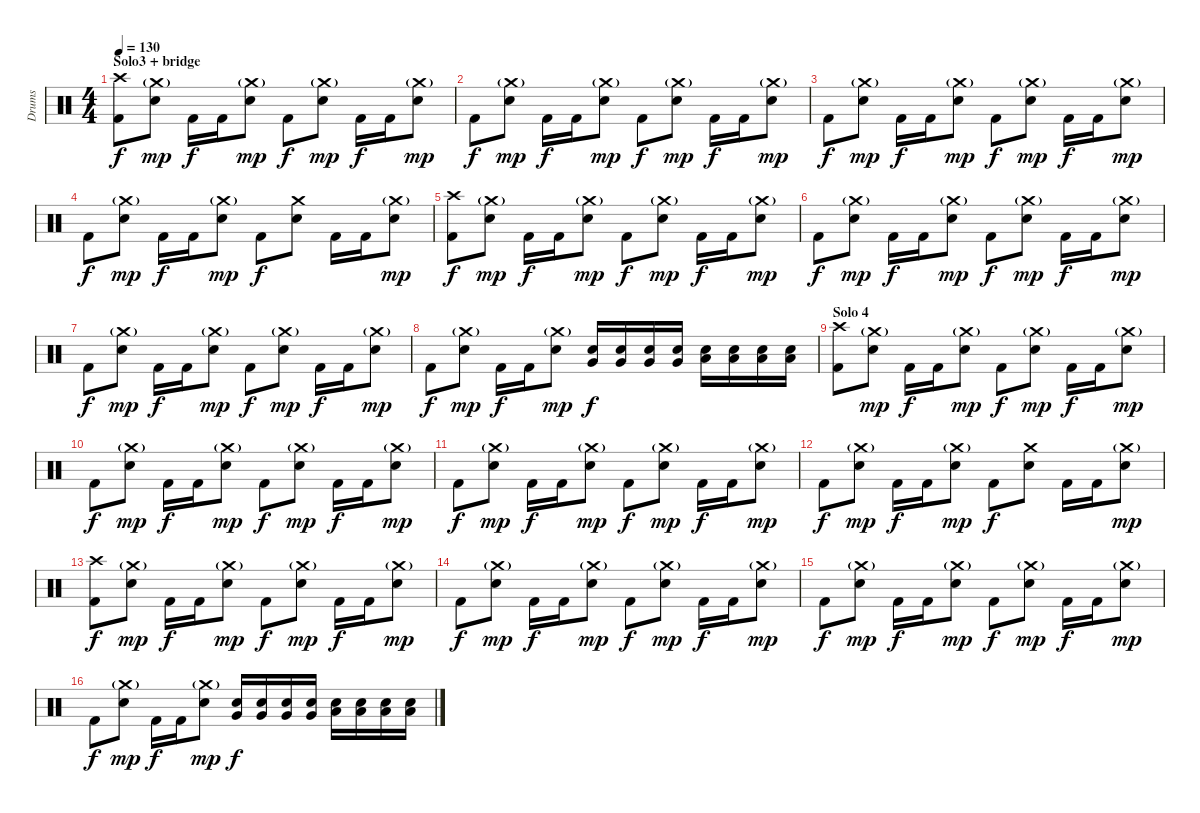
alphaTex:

\track ("Drums" "Drums") {instrument percussion}
\staff {score}
\articulation defaults
\ts (4 4)
\section ("" "Solo3 + bridge")
\tempo 130
\clef neutral
\ks c
("Crash high (hit)" "Kick (hit) 2").8{dy f} ("Crash medium (hit)"{g} "Electric Snare (hit)").8{dy mp} "Kick (hit) 2".16{dy f} "Kick (hit) 2".16 ("Crash medium (hit)"{g} "Electric Snare (hit)").8{dy mp} "Kick (hit) 2".8{dy f} ("Crash medium (hit)"{g} "Electric Snare (hit)").8{dy mp} "Kick (hit) 2".16{dy f} "Kick (hit) 2".16 ("Crash medium (hit)"{g} "Electric Snare (hit)").8{dy mp} |
"Kick (hit) 2".8{dy f} ("Crash medium (hit)"{g} "Electric Snare (hit)").8{dy mp} "Kick (hit) 2".16{dy f} "Kick (hit) 2".16 ("Crash medium (hit)"{g} "Electric Snare (hit)").8{dy mp} "Kick (hit) 2".8{dy f} ("Crash medium (hit)"{g} "Electric Snare (hit)").8{dy mp} "Kick (hit) 2".16{dy f} "Kick (hit) 2".16 ("Crash medium (hit)"{g} "Electric Snare (hit)").8{dy mp} |
"Kick (hit) 2".8{dy f} ("Crash medium (hit)"{g} "Electric Snare (hit)").8{dy mp} "Kick (hit) 2".16{dy f} "Kick (hit) 2".16 ("Crash medium (hit)"{g} "Electric Snare (hit)").8{dy mp} "Kick (hit) 2".8{dy f} ("Crash medium (hit)"{g} "Electric Snare (hit)").8{dy mp} "Kick (hit) 2".16{dy f} "Kick (hit) 2".16 ("Crash medium (hit)"{g} "Electric Snare (hit)").8{dy mp} |
"Kick (hit) 2".8{dy f} ("Crash medium (hit)"{g} "Electric Snare (hit)").8{dy mp} "Kick (hit) 2".16{dy f} "Kick (hit) 2".16 ("Crash medium (hit)"{g} "Electric Snare (hit)").8{dy mp} "Kick (hit) 2".8{dy f} ("Crash medium (hit)" "Electric Snare (hit)").8 "Kick (hit) 2".16 "Kick (hit) 2".16 ("Crash medium (hit)"{g} "Electric Snare (hit)").8{dy mp} |
("Crash high (hit)" "Kick (hit) 2").8{dy f} ("Crash medium (hit)"{g} "Electric Snare (hit)").8{dy mp} "Kick (hit) 2".16{dy f} "Kick (hit) 2".16 ("Crash medium (hit)"{g} "Electric Snare (hit)").8{dy mp} "Kick (hit) 2".8{dy f} ("Crash medium (hit)"{g} "Electric Snare (hit)").8{dy mp} "Kick (hit) 2".16{dy f} "Kick (hit) 2".16 ("Crash medium (hit)"{g} "Electric Snare (hit)").8{dy mp} |
"Kick (hit) 2".8{dy f} ("Crash medium (hit)"{g} "Electric Snare (hit)").8{dy mp} "Kick (hit) 2".16{dy f} "Kick (hit) 2".16 ("Crash medium (hit)"{g} "Electric Snare (hit)").8{dy mp} "Kick (hit) 2".8{dy f} ("Crash medium (hit)"{g} "Electric Snare (hit)").8{dy mp} "Kick (hit) 2".16{dy f} "Kick (hit) 2".16 ("Crash medium (hit)"{g} "Electric Snare (hit)").8{dy mp} |
"Kick (hit) 2".8{dy f} ("Crash medium (hit)"{g} "Electric Snare (hit)").8{dy mp} "Kick (hit) 2".16{dy f} "Kick (hit) 2".16 ("Crash medium (hit)"{g} "Electric Snare (hit)").8{dy mp} "Kick (hit) 2".8{dy f} ("Crash medium (hit)"{g} "Electric Snare (hit)").8{dy mp} "Kick (hit) 2".16{dy f} "Kick (hit) 2".16 ("Crash medium (hit)"{g} "Electric Snare (hit)").8{dy mp} |
"Kick (hit) 2".8{dy f} ("Crash medium (hit)"{g} "Electric Snare (hit)").8{dy mp} "Kick (hit) 2".16{dy f} "Kick (hit) 2".16 ("Crash medium (hit)"{g} "Electric Snare (hit)").8{dy mp} ("Very Low Tom (hit)" "Electric Snare (hit)").16{dy f} ("Very Low Tom (hit)" "Electric Snare (hit)").16 ("Very Low Tom (hit)" "Electric Snare (hit)").16 ("Very Low Tom (hit)" "Electric Snare (hit)").16 ("Low Tom (hit)" "Electric Snare (hit)").16 ("Low Tom (hit)" "Electric Snare (hit)").16 ("Low Tom (hit)" "Electric Snare (hit)").16 ("Low Tom (hit)" "Electric Snare (hit)").16 |
\section ("" "Solo 4")
("Crash high (hit)" "Kick (hit) 2").8 ("Crash medium (hit)"{g} "Electric Snare (hit)").8{dy mp} "Kick (hit) 2".16{dy f} "Kick (hit) 2".16 ("Crash medium (hit)"{g} "Electric Snare (hit)").8{dy mp} "Kick (hit) 2".8{dy f} ("Crash medium (hit)"{g} "Electric Snare (hit)").8{dy mp} "Kick (hit) 2".16{dy f} "Kick (hit) 2".16 ("Crash medium (hit)"{g} "Electric Snare (hit)").8{dy mp} |
"Kick (hit) 2".8{dy f} ("Crash medium (hit)"{g} "Electric Snare (hit)").8{dy mp} "Kick (hit) 2".16{dy f} "Kick (hit) 2".16 ("Crash medium (hit)"{g} "Electric Snare (hit)").8{dy mp} "Kick (hit) 2".8{dy f} ("Crash medium (hit)"{g} "Electric Snare (hit)").8{dy mp} "Kick (hit) 2".16{dy f} "Kick (hit) 2".16 ("Crash medium (hit)"{g} "Electric Snare (hit)").8{dy mp} |
"Kick (hit) 2".8{dy f} ("Crash medium (hit)"{g} "Electric Snare (hit)").8{dy mp} "Kick (hit) 2".16{dy f} "Kick (hit) 2".16 ("Crash medium (hit)"{g} "Electric Snare (hit)").8{dy mp} "Kick (hit) 2".8{dy f} ("Crash medium (hit)"{g} "Electric Snare (hit)").8{dy mp} "Kick (hit) 2".16{dy f} "Kick (hit) 2".16 ("Crash medium (hit)"{g} "Electric Snare (hit)").8{dy mp} |
"Kick (hit) 2".8{dy f} ("Crash medium (hit)"{g} "Electric Snare (hit)").8{dy mp} "Kick (hit) 2".16{dy f} "Kick (hit) 2".16 ("Crash medium (hit)"{g} "Electric Snare (hit)").8{dy mp} "Kick (hit) 2".8{dy f} ("Crash medium (hit)" "Electric Snare (hit)").8 "Kick (hit) 2".16 "Kick (hit) 2".16 ("Crash medium (hit)"{g} "Electric Snare (hit)").8{dy mp} |
("Crash high (hit)" "Kick (hit) 2").8{dy f} ("Crash medium (hit)"{g} "Electric Snare (hit)").8{dy mp} "Kick (hit) 2".16{dy f} "Kick (hit) 2".16 ("Crash medium (hit)"{g} "Electric Snare (hit)").8{dy mp} "Kick (hit) 2".8{dy f} ("Crash medium (hit)"{g} "Electric Snare (hit)").8{dy mp} "Kick (hit) 2".16{dy f} "Kick (hit) 2".16 ("Crash medium (hit)"{g} "Electric Snare (hit)").8{dy mp} |
"Kick (hit) 2".8{dy f} ("Crash medium (hit)"{g} "Electric Snare (hit)").8{dy mp} "Kick (hit) 2".16{dy f} "Kick (hit) 2".16 ("Crash medium (hit)"{g} "Electric Snare (hit)").8{dy mp} "Kick (hit) 2".8{dy f} ("Crash medium (hit)"{g} "Electric Snare (hit)").8{dy mp} "Kick (hit) 2".16{dy f} "Kick (hit) 2".16 ("Crash medium (hit)"{g} "Electric Snare (hit)").8{dy mp} |
"Kick (hit) 2".8{dy f} ("Crash medium (hit)"{g} "Electric Snare (hit)").8{dy mp} "Kick (hit) 2".16{dy f} "Kick (hit) 2".16 ("Crash medium (hit)"{g} "Electric Snare (hit)").8{dy mp} "Kick (hit) 2".8{dy f} ("Crash medium (hit)"{g} "Electric Snare (hit)").8{dy mp} "Kick (hit) 2".16{dy f} "Kick (hit) 2".16 ("Crash medium (hit)"{g} "Electric Snare (hit)").8{dy mp} |
"Kick (hit) 2".8{dy f} ("Crash medium (hit)"{g} "Electric Snare (hit)").8{dy mp} "Kick (hit) 2".16{dy f} "Kick (hit) 2".16 ("Crash medium (hit)"{g} "Electric Snare (hit)").8{dy mp} ("Very Low Tom (hit)" "Electric Snare (hit)").16{dy f} ("Very Low Tom (hit)" "Electric Snare (hit)").16 ("Very Low Tom (hit)" "Electric Snare (hit)").16 ("Very Low Tom (hit)" "Electric Snare (hit)").16 ("Low Tom (hit)" "Electric Snare (hit)").16 ("Low Tom (hit)" "Electric Snare (hit)").16 ("Low Tom (hit)" "Electric Snare (hit)").16 ("Low Tom (hit)" "Electric Snare (hit)").16
